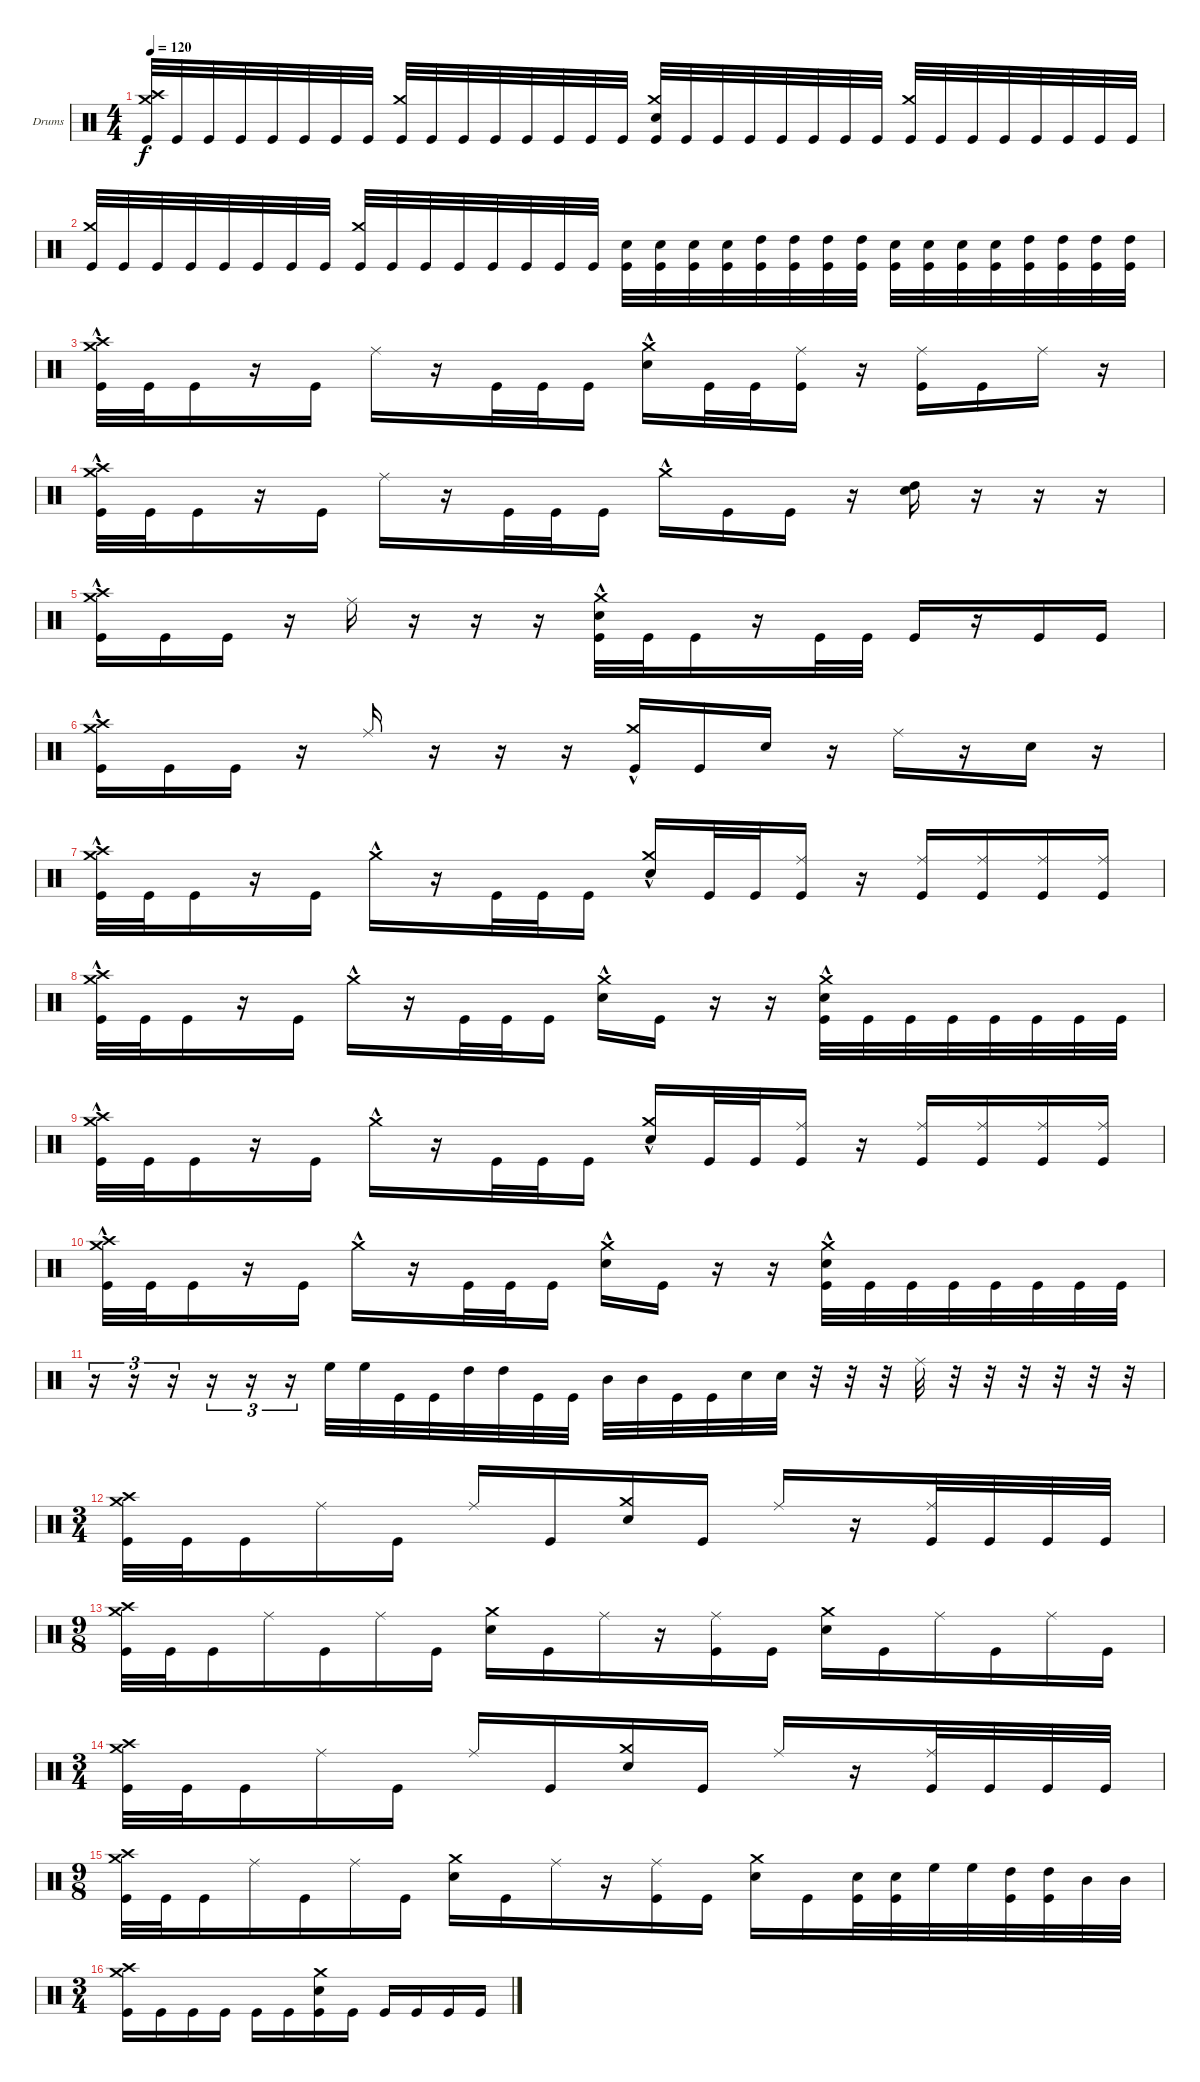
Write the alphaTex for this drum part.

\defaultSystemsLayout 4
\bracketExtendMode groupsimilarinstruments
\firstSystemTrackNameOrientation horizontal
\otherSystemsTrackNameOrientation horizontal
\track ("Drumkit" "Drums") {instrument percussion}
\staff {score}
\articulation defaults
\ts (4 4)
\tempo 120
\clef neutral
\ks c
("Crash medium (hit)" "Crash high (hit)" "Kick (hit)").32{dy f} "Kick (hit)".32 "Kick (hit)".32 "Kick (hit)".32 "Kick (hit)".32 "Kick (hit)".32 "Kick (hit)".32 "Kick (hit)".32 ("Kick (hit)" "Crash medium (hit)").32{beam invert} "Kick (hit)".32 "Kick (hit)".32 "Kick (hit)".32 "Kick (hit)".32 "Kick (hit)".32 "Kick (hit)".32 "Kick (hit)".32 ("Kick (hit)" "Snare (hit) 2" "Crash medium (hit)").32 "Kick (hit)".32 "Kick (hit)".32 "Kick (hit)".32 "Kick (hit)".32 "Kick (hit)".32 "Kick (hit)".32 "Kick (hit)".32 ("Kick (hit)" "Crash medium (hit)").32{beam invert} "Kick (hit)".32 "Kick (hit)".32 "Kick (hit)".32 "Kick (hit)".32 "Kick (hit)".32 "Kick (hit)".32 "Kick (hit)".32 |
("Crash medium (hit)" "Kick (hit)").32{beam invert} "Kick (hit)".32 "Kick (hit)".32 "Kick (hit)".32 "Kick (hit)".32 "Kick (hit)".32 "Kick (hit)".32 "Kick (hit)".32 ("Kick (hit)" "Crash medium (hit)").32{beam invert} "Kick (hit)".32 "Kick (hit)".32 "Kick (hit)".32 "Kick (hit)".32 "Kick (hit)".32 "Kick (hit)".32 "Kick (hit)".32 ("Kick (hit)" "Snare (hit) 2").32{beam invert} ("Kick (hit)" "Snare (hit) 2").32 ("Kick (hit)" "Snare (hit) 2").32 ("Kick (hit)" "Snare (hit) 2").32 ("Kick (hit)" "High Tom (hit)").32 ("Kick (hit)" "High Tom (hit)").32 ("Kick (hit)" "High Tom (hit)").32 ("Kick (hit)" "High Tom (hit)").32 ("Kick (hit)" "Snare (hit) 2").32{beam invert} ("Kick (hit)" "Snare (hit) 2").32 ("Kick (hit)" "Snare (hit) 2").32 ("Kick (hit)" "Snare (hit) 2").32 ("Kick (hit)" "High Tom (hit)").32 ("Kick (hit)" "High Tom (hit)").32 ("Kick (hit)" "High Tom (hit)").32 ("Kick (hit)" "High Tom (hit)").32 |
("Crash medium (hit)"{hac} "Crash high (hit)" "Kick (hit)").32 "Kick (hit)".32 "Kick (hit)".16 r.16 "Kick (hit)".16 "Ride (middle)".16 r.16 "Kick (hit)".32 "Kick (hit)".32 "Kick (hit)".16 ("Snare (hit) 2" "Crash medium (hit)"{hac}).16 "Kick (hit)".32 "Kick (hit)".32 ("Kick (hit)" "Ride (middle)").16 r.16 ("Ride (middle)" "Kick (hit)").16 "Kick (hit)".16 "Ride (middle)".16 r.16 |
("Crash medium (hit)"{hac} "Crash high (hit)" "Kick (hit)").32 "Kick (hit)".32 "Kick (hit)".16 r.16 "Kick (hit)".16 "Ride (middle)".16 r.16 "Kick (hit)".32 "Kick (hit)".32 "Kick (hit)".16 "Crash medium (hit)"{hac}.16 "Kick (hit)".16 "Kick (hit)".16 r.16 ("Snare (hit) 2" "High Tom (hit)").16 r.16 r.16 r.16 |
("Crash medium (hit)"{hac} "Crash high (hit)" "Kick (hit)").16 "Kick (hit)".16 "Kick (hit)".16 r.16 "Ride (middle)".16 r.16 r.16 r.16 ("Crash medium (hit)"{hac} "Snare (hit) 2" "Kick (hit)").32 "Kick (hit)".32 "Kick (hit)".16 r.16 "Kick (hit)".32 "Kick (hit)".32 "Kick (hit)".16 r.16 "Kick (hit)".16 "Kick (hit)".16 |
("Crash medium (hit)"{hac} "Crash high (hit)" "Kick (hit)").16 "Kick (hit)".16 "Kick (hit)".16 r.16 "Ride (middle)".16 r.16 r.16 r.16 ("Crash medium (hit)"{hac} "Kick (hit)").16{beam invert} "Kick (hit)".16 "Snare (hit) 2".16 r.16 "Ride (middle)".16 r.16 "Snare (hit) 2".16 r.16 |
("Crash medium (hit)"{hac} "Crash high (hit)" "Kick (hit)").32 "Kick (hit)".32 "Kick (hit)".16 r.16 "Kick (hit)".16 "Crash medium (hit)"{hac}.16 r.16 "Kick (hit)".32 "Kick (hit)".32 "Kick (hit)".16 ("Snare (hit) 2" "Crash medium (hit)"{hac}).16 "Kick (hit)".32 "Kick (hit)".32 ("Kick (hit)" "Ride (middle)").16 r.16 ("Ride (middle)" "Kick (hit)").16{beam invert} ("Ride (middle)" "Kick (hit)").16 ("Ride (middle)" "Kick (hit)").16 ("Ride (middle)" "Kick (hit)").16 |
("Crash medium (hit)"{hac} "Crash high (hit)" "Kick (hit)").32 "Kick (hit)".32 "Kick (hit)".16 r.16 "Kick (hit)".16 "Crash medium (hit)"{hac}.16 r.16 "Kick (hit)".32 "Kick (hit)".32 "Kick (hit)".16 ("Snare (hit) 2" "Crash medium (hit)"{hac}).16 "Kick (hit)".16 r.16 r.16 ("Snare (hit) 2" "Crash medium (hit)"{hac} "Kick (hit)").32 "Kick (hit)".32 "Kick (hit)".32 "Kick (hit)".32 "Kick (hit)".32 "Kick (hit)".32 "Kick (hit)".32 "Kick (hit)".32 |
("Crash medium (hit)"{hac} "Crash high (hit)" "Kick (hit)").32 "Kick (hit)".32 "Kick (hit)".16 r.16 "Kick (hit)".16 "Crash medium (hit)"{hac}.16 r.16 "Kick (hit)".32 "Kick (hit)".32 "Kick (hit)".16 ("Snare (hit) 2" "Crash medium (hit)"{hac}).16 "Kick (hit)".32 "Kick (hit)".32 ("Kick (hit)" "Ride (middle)").16 r.16 ("Ride (middle)" "Kick (hit)").16{beam invert} ("Ride (middle)" "Kick (hit)").16 ("Ride (middle)" "Kick (hit)").16 ("Ride (middle)" "Kick (hit)").16 |
("Crash medium (hit)"{hac} "Crash high (hit)" "Kick (hit)").32 "Kick (hit)".32 "Kick (hit)".16 r.16 "Kick (hit)".16 "Crash medium (hit)"{hac}.16 r.16 "Kick (hit)".32 "Kick (hit)".32 "Kick (hit)".16 ("Snare (hit) 2" "Crash medium (hit)"{hac}).16 "Kick (hit)".16 r.16 r.16 ("Snare (hit) 2" "Crash medium (hit)"{hac} "Kick (hit)").32 "Kick (hit)".32 "Kick (hit)".32 "Kick (hit)".32 "Kick (hit)".32 "Kick (hit)".32 "Kick (hit)".32 "Kick (hit)".32 |
r.16{tu (3 2)} r.16{tu (3 2)} r.16{tu (3 2)} r.16{tu (3 2)} r.16{tu (3 2)} r.16{tu (3 2)} "High Floor Tom (hit)".32{beam invert} "High Floor Tom (hit)".32 "Kick (hit)".32 "Kick (hit)".32 "High Tom (hit)".32 "High Tom (hit)".32 "Kick (hit)".32 "Kick (hit)".32 "Mid Tom (hit)".32{beam invert} "Mid Tom (hit)".32 "Kick (hit)".32 "Kick (hit)".32 "Snare (hit) 2".32 "Snare (hit) 2".32 r.32 r.32 r.32 "Ride (middle)".32 r.32 r.32 r.32 r.32 r.32 r.32 |
\ts (3 4)
("Crash medium (hit)" "Crash high (hit)" "Kick (hit)").32 "Kick (hit)".32 "Kick (hit)".16 "Ride (middle)".16 "Kick (hit)".16 "Ride (middle)".16 "Kick (hit)".16 ("Snare (hit) 2" "Crash medium (hit)").16 "Kick (hit)".16 "Ride (middle)".16{beam invert} r.16 ("Ride (middle)" "Kick (hit)").32 "Kick (hit)".32 "Kick (hit)".32 "Kick (hit)".32 |
\ts (9 8)
("Kick (hit)" "Crash medium (hit)" "Crash high (hit)").32 "Kick (hit)".32 "Kick (hit)".16 "Ride (middle)".16 "Kick (hit)".16 "Ride (middle)".16 "Kick (hit)".16 ("Snare (hit) 2" "Crash medium (hit)").16 "Kick (hit)".16 "Ride (middle)".16 r.16 ("Kick (hit)" "Ride (middle)").16 "Kick (hit)".16 ("Crash medium (hit)" "Snare (hit) 2").16 "Kick (hit)".16 "Ride (middle)".16 "Kick (hit)".16 "Ride (middle)".16 "Kick (hit)".16 |
\ts (3 4)
("Crash medium (hit)" "Crash high (hit)" "Kick (hit)").32 "Kick (hit)".32 "Kick (hit)".16 "Ride (middle)".16 "Kick (hit)".16 "Ride (middle)".16 "Kick (hit)".16 ("Snare (hit) 2" "Crash medium (hit)").16 "Kick (hit)".16 "Ride (middle)".16{beam invert} r.16 ("Ride (middle)" "Kick (hit)").32 "Kick (hit)".32 "Kick (hit)".32 "Kick (hit)".32 |
\ts (9 8)
("Kick (hit)" "Crash medium (hit)" "Crash high (hit)").32 "Kick (hit)".32 "Kick (hit)".16 "Ride (middle)".16 "Kick (hit)".16 "Ride (middle)".16 "Kick (hit)".16 ("Snare (hit) 2" "Crash medium (hit)").16 "Kick (hit)".16 "Ride (middle)".16 r.16 ("Kick (hit)" "Ride (middle)").16 "Kick (hit)".16 ("Snare (hit) 2" "Crash medium (hit)").16 "Kick (hit)".16 ("Kick (hit)" "Snare (hit) 2").32 ("Kick (hit)" "Snare (hit) 2").32 "High Floor Tom (hit)".32 "High Floor Tom (hit)".32 ("High Tom (hit)" "Kick (hit)").32 ("High Tom (hit)" "Kick (hit)").32 "Mid Tom (hit)".32 "Mid Tom (hit)".32 |
\ts (3 4)
("Crash medium (hit)" "Crash high (hit)" "Kick (hit)").16 "Kick (hit)".16 "Kick (hit)".16 "Kick (hit)".16 "Kick (hit)".16 "Kick (hit)".16 ("Kick (hit)" "Snare (hit) 2" "Crash medium (hit)").16 "Kick (hit)".16 "Kick (hit)".16 "Kick (hit)".16 "Kick (hit)".16 "Kick (hit)".16
